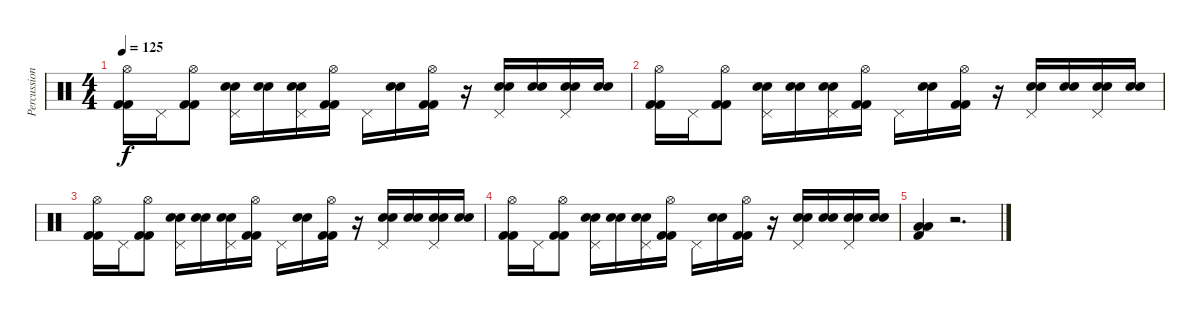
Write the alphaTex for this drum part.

\track ("Percussion" "Percussion") {instrument percussion}
\staff {score}
\articulation defaults
\ts (4 4)
\tempo 125
\clef neutral
\ks c
("Hi-Hat (open)" "Kick (hit) 2" "Kick (hit) 2").16{dy f} "Pedal Hi-Hat (hit)".16 ("Hi-Hat (open)" "Kick (hit) 2" "Kick (hit) 2").8 ("Pedal Hi-Hat (hit)" "Electric Snare (hit)" "Electric Snare (hit)").16 ("Electric Snare (hit)" "Electric Snare (hit)").16 ("Pedal Hi-Hat (hit)" "Electric Snare (hit)" "Electric Snare (hit)").16 ("Hi-Hat (open)" "Kick (hit) 2" "Kick (hit) 2").16 "Pedal Hi-Hat (hit)".16 ("Electric Snare (hit)" "Electric Snare (hit)").16 ("Hi-Hat (open)" "Kick (hit) 2" "Kick (hit) 2").16 r.16 ("Pedal Hi-Hat (hit)" "Electric Snare (hit)" "Electric Snare (hit)").16 ("Electric Snare (hit)" "Electric Snare (hit)").16 ("Pedal Hi-Hat (hit)" "Electric Snare (hit)" "Electric Snare (hit)").16 ("Electric Snare (hit)" "Electric Snare (hit)").16 |
("Hi-Hat (open)" "Kick (hit) 2" "Kick (hit) 2").16 "Pedal Hi-Hat (hit)".16 ("Hi-Hat (open)" "Kick (hit) 2" "Kick (hit) 2").8 ("Pedal Hi-Hat (hit)" "Electric Snare (hit)" "Electric Snare (hit)").16 ("Electric Snare (hit)" "Electric Snare (hit)").16 ("Pedal Hi-Hat (hit)" "Electric Snare (hit)" "Electric Snare (hit)").16 ("Hi-Hat (open)" "Kick (hit) 2" "Kick (hit) 2").16 "Pedal Hi-Hat (hit)".16 ("Electric Snare (hit)" "Electric Snare (hit)").16 ("Hi-Hat (open)" "Kick (hit) 2" "Kick (hit) 2").16 r.16 ("Pedal Hi-Hat (hit)" "Electric Snare (hit)" "Electric Snare (hit)").16 ("Electric Snare (hit)" "Electric Snare (hit)").16 ("Pedal Hi-Hat (hit)" "Electric Snare (hit)" "Electric Snare (hit)").16 ("Electric Snare (hit)" "Electric Snare (hit)").16 |
("Hi-Hat (open)" "Kick (hit) 2" "Kick (hit) 2").16 "Pedal Hi-Hat (hit)".16 ("Hi-Hat (open)" "Kick (hit) 2" "Kick (hit) 2").8 ("Pedal Hi-Hat (hit)" "Electric Snare (hit)" "Electric Snare (hit)").16 ("Electric Snare (hit)" "Electric Snare (hit)").16 ("Pedal Hi-Hat (hit)" "Electric Snare (hit)" "Electric Snare (hit)").16 ("Hi-Hat (open)" "Kick (hit) 2" "Kick (hit) 2").16 "Pedal Hi-Hat (hit)".16 ("Electric Snare (hit)" "Electric Snare (hit)").16 ("Hi-Hat (open)" "Kick (hit) 2" "Kick (hit) 2").16 r.16 ("Pedal Hi-Hat (hit)" "Electric Snare (hit)" "Electric Snare (hit)").16 ("Electric Snare (hit)" "Electric Snare (hit)").16 ("Pedal Hi-Hat (hit)" "Electric Snare (hit)" "Electric Snare (hit)").16 ("Electric Snare (hit)" "Electric Snare (hit)").16 |
("Hi-Hat (open)" "Kick (hit) 2" "Kick (hit) 2").16 "Pedal Hi-Hat (hit)".16 ("Hi-Hat (open)" "Kick (hit) 2" "Kick (hit) 2").8 ("Pedal Hi-Hat (hit)" "Electric Snare (hit)" "Electric Snare (hit)").16 ("Electric Snare (hit)" "Electric Snare (hit)").16 ("Pedal Hi-Hat (hit)" "Electric Snare (hit)" "Electric Snare (hit)").16 ("Hi-Hat (open)" "Kick (hit) 2" "Kick (hit) 2").16 "Pedal Hi-Hat (hit)".16 ("Electric Snare (hit)" "Electric Snare (hit)").16 ("Hi-Hat (open)" "Kick (hit) 2" "Kick (hit) 2").16 r.16 ("Pedal Hi-Hat (hit)" "Electric Snare (hit)" "Electric Snare (hit)").16 ("Electric Snare (hit)" "Electric Snare (hit)").16 ("Pedal Hi-Hat (hit)" "Electric Snare (hit)" "Electric Snare (hit)").16 ("Electric Snare (hit)" "Electric Snare (hit)").16 |
("Low Floor Tom (hit)" "Low Floor Tom (hit)" "Kick (hit) 2").4 r.2{d}
